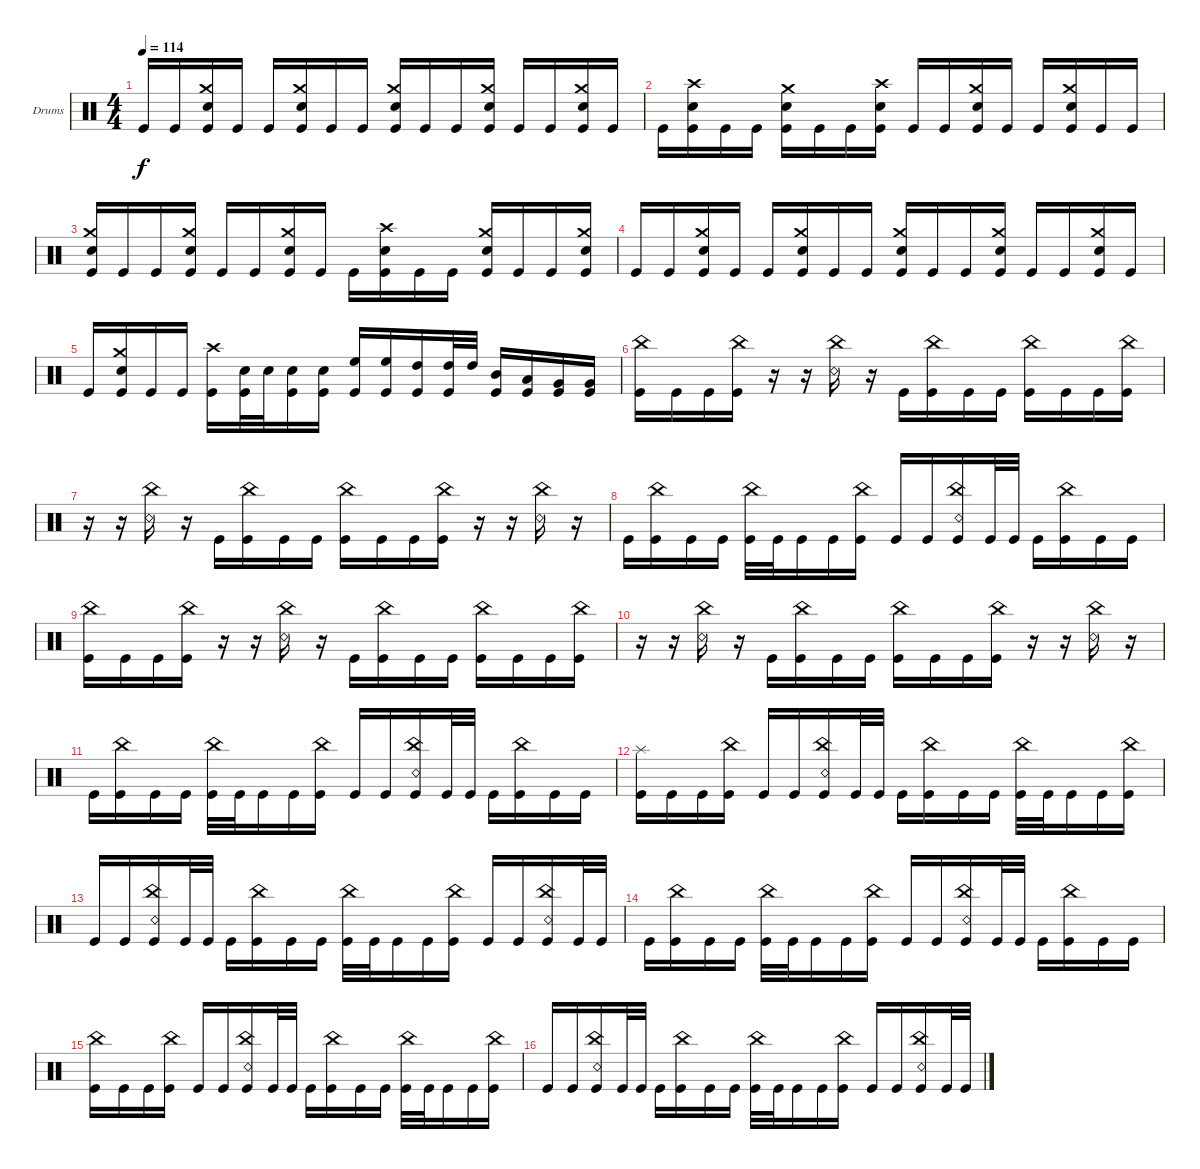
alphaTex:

\bracketExtendMode groupsimilarinstruments
\firstSystemTrackNameOrientation horizontal
\otherSystemsTrackNameOrientation horizontal
\track ("Drumkit" "Drums") {instrument percussion}
\staff {score}
\articulation defaults
\ts (4 4)
\tempo 114
\clef neutral
\ks c "Kick (hit)".16{dy f} "Kick (hit)".16
("Crash medium (hit)" "Snare (hit) 2" "Kick (hit)").16 "Kick (hit)".16 "Kick (hit)".16 ("Crash medium (hit)" "Snare (hit) 2" "Kick (hit)").16 "Kick (hit)".16 "Kick (hit)".16 ("Crash medium (hit)" "Snare (hit) 2" "Kick (hit)").16 "Kick (hit)".16 "Kick (hit)".16 ("Crash medium (hit)" "Snare (hit) 2" "Kick (hit)").16 "Kick (hit)".16 "Kick (hit)".16 ("Crash medium (hit)" "Snare (hit) 2" "Kick (hit)").16 "Kick (hit)".16 |
"Kick (hit)".16 ("Crash high (hit)" "Snare (hit) 2" "Kick (hit)").16 "Kick (hit)".16 "Kick (hit)".16 ("Crash medium (hit)" "Snare (hit) 2" "Kick (hit)").16 "Kick (hit)".16 "Kick (hit)".16 ("Crash high (hit)" "Snare (hit) 2" "Kick (hit)").16 "Kick (hit)".16 "Kick (hit)".16 ("Crash medium (hit)" "Snare (hit) 2" "Kick (hit)").16 "Kick (hit)".16 "Kick (hit)".16 ("Crash medium (hit)" "Snare (hit) 2" "Kick (hit)").16 "Kick (hit)".16 "Kick (hit)".16 |
("Crash medium (hit)" "Snare (hit) 2" "Kick (hit)").16 "Kick (hit)".16 "Kick (hit)".16 ("Crash medium (hit)" "Snare (hit) 2" "Kick (hit)").16 "Kick (hit)".16 "Kick (hit)".16 ("Crash medium (hit)" "Snare (hit) 2" "Kick (hit)").16 "Kick (hit)".16 "Kick (hit)".16 ("Crash high (hit)" "Snare (hit) 2" "Kick (hit)").16 "Kick (hit)".16 "Kick (hit)".16 ("Crash medium (hit)" "Snare (hit) 2" "Kick (hit)").16 "Kick (hit)".16 "Kick (hit)".16 ("Crash medium (hit)" "Snare (hit) 2" "Kick (hit)").16 |
"Kick (hit)".16 "Kick (hit)".16 ("Crash medium (hit)" "Snare (hit) 2" "Kick (hit)").16 "Kick (hit)".16 "Kick (hit)".16 ("Crash medium (hit)" "Snare (hit) 2" "Kick (hit)").16 "Kick (hit)".16 "Kick (hit)".16 ("Crash medium (hit)" "Snare (hit) 2" "Kick (hit)").16 "Kick (hit)".16 "Kick (hit)".16 ("Crash medium (hit)" "Snare (hit) 2" "Kick (hit)").16 "Kick (hit)".16 "Kick (hit)".16 ("Crash medium (hit)" "Snare (hit) 2" "Kick (hit)").16 "Kick (hit)".16 |
"Kick (hit)".16 ("Crash medium (hit)" "Snare (hit) 2" "Kick (hit)").16 "Kick (hit)".16 "Kick (hit)".16 ("Crash high (hit)" "Kick (hit)").16 ("Snare (hit) 2" "Kick (hit)").32 "Snare (hit) 2".32 ("Snare (hit) 2" "Kick (hit)").16 ("Snare (hit) 2" "Kick (hit)").16 ("High Floor Tom (hit)" "Kick (hit)").16 ("High Floor Tom (hit)" "Kick (hit)").16 ("High Tom (hit)" "Kick (hit)").16 ("High Tom (hit)" "Kick (hit)").32 "High Tom (hit)".32 ("Mid Tom (hit)" "Kick (hit)").16 ("Low Tom (hit)" "Kick (hit)").16 ("Very Low Tom (hit)" "Kick (hit)").16 ("Very Low Tom (hit)" "Kick (hit)").16 |
("China (hit)" "Kick (hit)").16 "Kick (hit)".16 "Kick (hit)".16 ("China (hit)" "Kick (hit)").16 r.16 r.16 ("China (hit)" "Snare (rim shot)").16 r.16 "Kick (hit)".16 ("China (hit)" "Kick (hit)").16 "Kick (hit)".16 "Kick (hit)".16 ("China (hit)" "Kick (hit)").16 "Kick (hit)".16 "Kick (hit)".16 ("China (hit)" "Kick (hit)").16 |
r.16 r.16 ("China (hit)" "Snare (rim shot)").16 r.16 "Kick (hit)".16 ("China (hit)" "Kick (hit)").16 "Kick (hit)".16 "Kick (hit)".16 ("China (hit)" "Kick (hit)").16 "Kick (hit)".16 "Kick (hit)".16 ("China (hit)" "Kick (hit)").16 r.16 r.16 ("China (hit)" "Snare (rim shot)").16 r.16 |
"Kick (hit)".16 ("China (hit)" "Kick (hit)").16 "Kick (hit)".16 "Kick (hit)".16 ("China (hit)" "Kick (hit)").32 "Kick (hit)".32 "Kick (hit)".16 "Kick (hit)".16 ("China (hit)" "Kick (hit)").16 "Kick (hit)".16 "Kick (hit)".16 ("China (hit)" "Snare (rim shot)" "Kick (hit)").16 "Kick (hit)".32 "Kick (hit)".32 "Kick (hit)".16 ("China (hit)" "Kick (hit)").16 "Kick (hit)".16 "Kick (hit)".16 |
("China (hit)" "Kick (hit)").16 "Kick (hit)".16 "Kick (hit)".16 ("China (hit)" "Kick (hit)").16 r.16 r.16 ("China (hit)" "Snare (rim shot)").16 r.16 "Kick (hit)".16 ("China (hit)" "Kick (hit)").16 "Kick (hit)".16 "Kick (hit)".16 ("China (hit)" "Kick (hit)").16 "Kick (hit)".16 "Kick (hit)".16 ("China (hit)" "Kick (hit)").16 |
r.16 r.16 ("China (hit)" "Snare (rim shot)").16 r.16 "Kick (hit)".16 ("China (hit)" "Kick (hit)").16 "Kick (hit)".16 "Kick (hit)".16 ("China (hit)" "Kick (hit)").16 "Kick (hit)".16 "Kick (hit)".16 ("China (hit)" "Kick (hit)").16 r.16 r.16 ("China (hit)" "Snare (rim shot)").16 r.16 |
"Kick (hit)".16 ("China (hit)" "Kick (hit)").16 "Kick (hit)".16 "Kick (hit)".16 ("China (hit)" "Kick (hit)").32 "Kick (hit)".32 "Kick (hit)".16 "Kick (hit)".16 ("China (hit)" "Kick (hit)").16 "Kick (hit)".16 "Kick (hit)".16 ("China (hit)" "Snare (rim shot)" "Kick (hit)").16 "Kick (hit)".32 "Kick (hit)".32 "Kick (hit)".16 ("China (hit)" "Kick (hit)").16 "Kick (hit)".16 "Kick (hit)".16 |
("Splash (hit)" "Kick (hit)").16 "Kick (hit)".16 "Kick (hit)".16 ("China (hit)" "Kick (hit)").16 "Kick (hit)".16 "Kick (hit)".16 ("China (hit)" "Snare (rim shot)" "Kick (hit)").16 "Kick (hit)".32 "Kick (hit)".32 "Kick (hit)".16 ("China (hit)" "Kick (hit)").16 "Kick (hit)".16 "Kick (hit)".16 ("China (hit)" "Kick (hit)").32 "Kick (hit)".32 "Kick (hit)".16 "Kick (hit)".16 ("China (hit)" "Kick (hit)").16 |
"Kick (hit)".16 "Kick (hit)".16 ("China (hit)" "Snare (rim shot)" "Kick (hit)").16 "Kick (hit)".32 "Kick (hit)".32 "Kick (hit)".16 ("China (hit)" "Kick (hit)").16 "Kick (hit)".16 "Kick (hit)".16 ("China (hit)" "Kick (hit)").32 "Kick (hit)".32 "Kick (hit)".16 "Kick (hit)".16 ("China (hit)" "Kick (hit)").16 "Kick (hit)".16 "Kick (hit)".16 ("China (hit)" "Snare (rim shot)" "Kick (hit)").16 "Kick (hit)".32 "Kick (hit)".32 |
"Kick (hit)".16 ("China (hit)" "Kick (hit)").16 "Kick (hit)".16 "Kick (hit)".16 ("China (hit)" "Kick (hit)").32 "Kick (hit)".32 "Kick (hit)".16 "Kick (hit)".16 ("China (hit)" "Kick (hit)").16 "Kick (hit)".16 "Kick (hit)".16 ("China (hit)" "Snare (rim shot)" "Kick (hit)").16 "Kick (hit)".32 "Kick (hit)".32 "Kick (hit)".16 ("China (hit)" "Kick (hit)").16 "Kick (hit)".16 "Kick (hit)".16 |
("China (hit)" "Kick (hit)").16 "Kick (hit)".16 "Kick (hit)".16 ("China (hit)" "Kick (hit)").16 "Kick (hit)".16 "Kick (hit)".16 ("China (hit)" "Snare (rim shot)" "Kick (hit)").16 "Kick (hit)".32 "Kick (hit)".32 "Kick (hit)".16 ("China (hit)" "Kick (hit)").16 "Kick (hit)".16 "Kick (hit)".16 ("China (hit)" "Kick (hit)").32 "Kick (hit)".32 "Kick (hit)".16 "Kick (hit)".16 ("China (hit)" "Kick (hit)").16 |
"Kick (hit)".16 "Kick (hit)".16 ("China (hit)" "Snare (rim shot)" "Kick (hit)").16 "Kick (hit)".32 "Kick (hit)".32 "Kick (hit)".16 ("China (hit)" "Kick (hit)").16 "Kick (hit)".16 "Kick (hit)".16 ("China (hit)" "Kick (hit)").32 "Kick (hit)".32 "Kick (hit)".16 "Kick (hit)".16 ("China (hit)" "Kick (hit)").16 "Kick (hit)".16 "Kick (hit)".16 ("China (hit)" "Snare (rim shot)" "Kick (hit)").16 "Kick (hit)".32 "Kick (hit)".32
